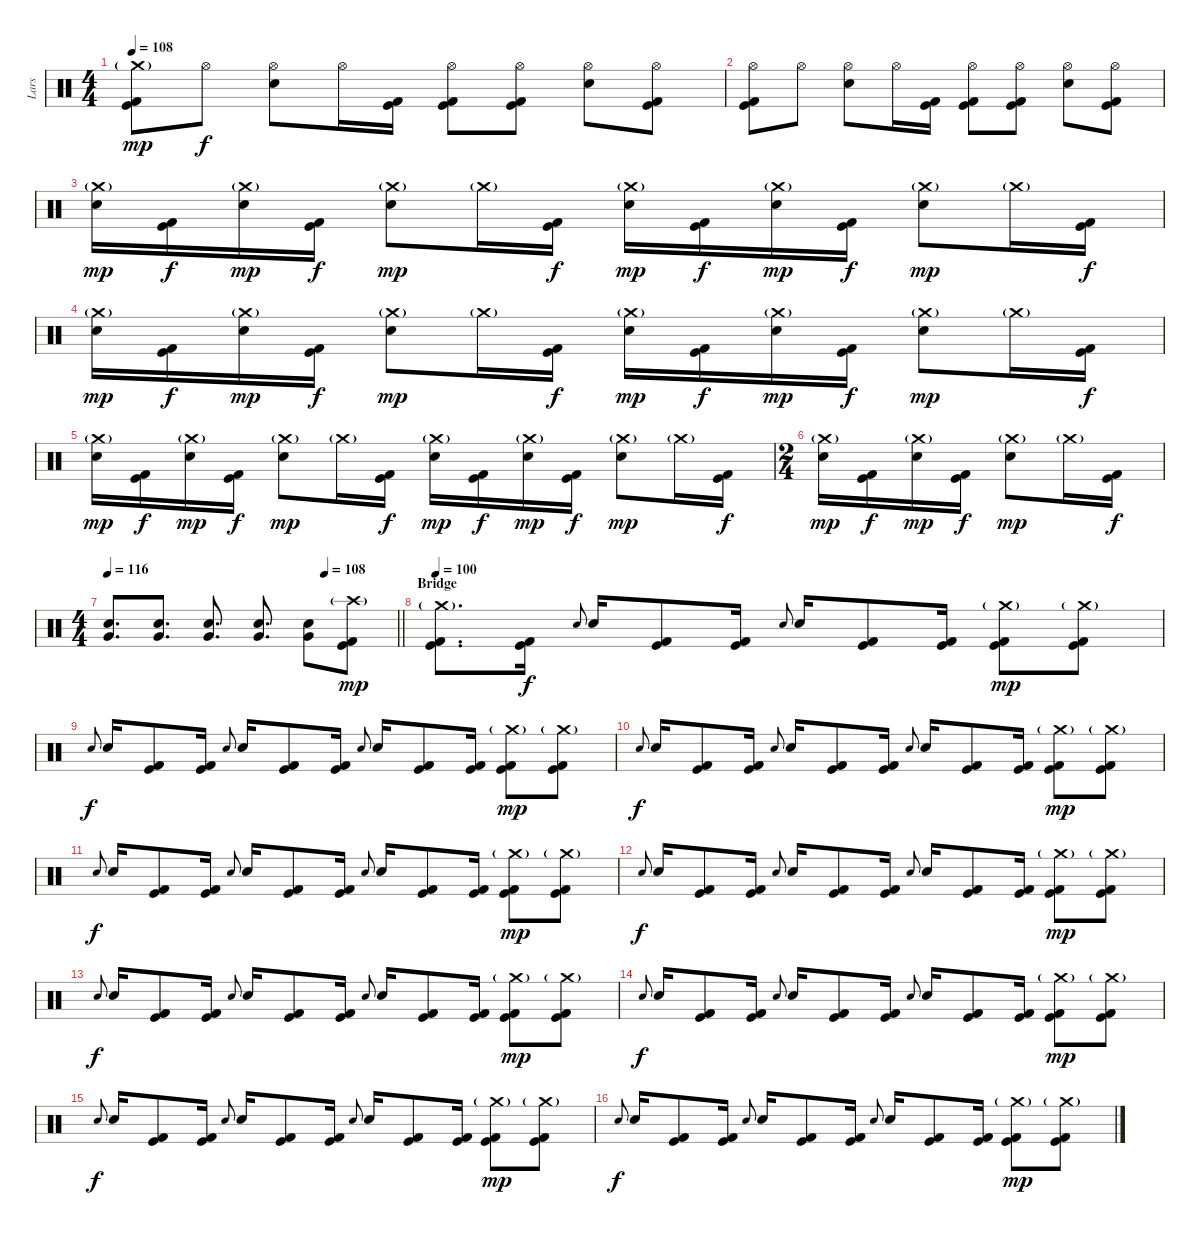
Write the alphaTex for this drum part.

\track ("Lars" "Lars") {instrument percussion}
\staff {score}
\articulation defaults
\ts (4 4)
\tempo 108
\clef neutral
\ks c
("Crash medium (hit)"{g} "Kick (hit)" "Kick (hit) 2").8{dy mp} "Hi-Hat (open)".8{dy f} ("Hi-Hat (open)" "Electric Snare (hit)").8 "Hi-Hat (open)".16 ("Kick (hit)" "Kick (hit) 2").16 ("Hi-Hat (open)" "Kick (hit)" "Kick (hit) 2").8 ("Hi-Hat (open)" "Kick (hit)" "Kick (hit) 2").8 ("Hi-Hat (open)" "Electric Snare (hit)").8 ("Hi-Hat (open)" "Kick (hit)" "Kick (hit) 2").8 |
("Hi-Hat (open)" "Kick (hit)" "Kick (hit) 2").8 "Hi-Hat (open)".8 ("Hi-Hat (open)" "Electric Snare (hit)").8 "Hi-Hat (open)".16 ("Kick (hit)" "Kick (hit) 2").16 ("Hi-Hat (open)" "Kick (hit)" "Kick (hit) 2").8 ("Hi-Hat (open)" "Kick (hit)" "Kick (hit) 2").8 ("Hi-Hat (open)" "Electric Snare (hit)").8 ("Hi-Hat (open)" "Kick (hit)" "Kick (hit) 2").8 |
("Crash medium (hit)"{g} "Electric Snare (hit)").16{dy mp} ("Kick (hit)" "Kick (hit) 2").16{dy f} ("Crash medium (hit)"{g} "Electric Snare (hit)").16{dy mp} ("Kick (hit)" "Kick (hit) 2").16{dy f} ("Crash medium (hit)"{g} "Electric Snare (hit)").8{dy mp} "Crash medium (hit)"{g}.16 ("Kick (hit)" "Kick (hit) 2").16{dy f} ("Crash medium (hit)"{g} "Electric Snare (hit)").16{dy mp} ("Kick (hit)" "Kick (hit) 2").16{dy f} ("Crash medium (hit)"{g} "Electric Snare (hit)").16{dy mp} ("Kick (hit)" "Kick (hit) 2").16{dy f} ("Crash medium (hit)"{g} "Electric Snare (hit)").8{dy mp} "Crash medium (hit)"{g}.16 ("Kick (hit)" "Kick (hit) 2").16{dy f} |
("Crash medium (hit)"{g} "Electric Snare (hit)").16{dy mp} ("Kick (hit)" "Kick (hit) 2").16{dy f} ("Crash medium (hit)"{g} "Electric Snare (hit)").16{dy mp} ("Kick (hit)" "Kick (hit) 2").16{dy f} ("Crash medium (hit)"{g} "Electric Snare (hit)").8{dy mp} "Crash medium (hit)"{g}.16 ("Kick (hit)" "Kick (hit) 2").16{dy f} ("Crash medium (hit)"{g} "Electric Snare (hit)").16{dy mp} ("Kick (hit)" "Kick (hit) 2").16{dy f} ("Crash medium (hit)"{g} "Electric Snare (hit)").16{dy mp} ("Kick (hit)" "Kick (hit) 2").16{dy f} ("Crash medium (hit)"{g} "Electric Snare (hit)").8{dy mp} "Crash medium (hit)"{g}.16 ("Kick (hit)" "Kick (hit) 2").16{dy f} |
("Crash medium (hit)"{g} "Electric Snare (hit)").16{dy mp} ("Kick (hit)" "Kick (hit) 2").16{dy f} ("Crash medium (hit)"{g} "Electric Snare (hit)").16{dy mp} ("Kick (hit)" "Kick (hit) 2").16{dy f} ("Crash medium (hit)"{g} "Electric Snare (hit)").8{dy mp} "Crash medium (hit)"{g}.16 ("Kick (hit)" "Kick (hit) 2").16{dy f} ("Crash medium (hit)"{g} "Electric Snare (hit)").16{dy mp} ("Kick (hit)" "Kick (hit) 2").16{dy f} ("Crash medium (hit)"{g} "Electric Snare (hit)").16{dy mp} ("Kick (hit)" "Kick (hit) 2").16{dy f} ("Crash medium (hit)"{g} "Electric Snare (hit)").8{dy mp} "Crash medium (hit)"{g}.16 ("Kick (hit)" "Kick (hit) 2").16{dy f} |
\ts (2 4)
("Crash medium (hit)"{g} "Electric Snare (hit)").16{dy mp} ("Kick (hit)" "Kick (hit) 2").16{dy f} ("Crash medium (hit)"{g} "Electric Snare (hit)").16{dy mp} ("Kick (hit)" "Kick (hit) 2").16{dy f} ("Crash medium (hit)"{g} "Electric Snare (hit)").8{dy mp} "Crash medium (hit)"{g}.16 ("Kick (hit)" "Kick (hit) 2").16{dy f} |
\ts (4 4)
\tempo 116
\tempo (108 0.75)
\barLineRight lightlight
("Electric Snare (hit)" "Very Low Tom (hit)").8{d} ("Electric Snare (hit)" "Very Low Tom (hit)").8{d} ("Electric Snare (hit)" "Very Low Tom (hit)").8{d} ("Electric Snare (hit)" "Very Low Tom (hit)").8{d} ("Electric Snare (hit)" "Very Low Tom (hit)").8 ("Crash high (hit)"{g} "Kick (hit)" "Kick (hit) 2").8{dy mp} |
\section ("" "Bridge")
\tempo 100
("Crash medium (hit)"{g} "Kick (hit)" "Kick (hit) 2").8{d} ("Kick (hit)" "Kick (hit) 2").16{dy f} "Electric Snare (hit)".8{gr onbeat} "Electric Snare (hit)".16 ("Kick (hit)" "Kick (hit) 2").8 ("Kick (hit)" "Kick (hit) 2").16 "Electric Snare (hit)".8{gr onbeat} "Electric Snare (hit)".16 ("Kick (hit)" "Kick (hit) 2").8 ("Kick (hit)" "Kick (hit) 2").16 ("Crash medium (hit)"{g} "Kick (hit)" "Kick (hit) 2").8{dy mp} ("Crash medium (hit)"{g} "Kick (hit)" "Kick (hit) 2").8 |
"Electric Snare (hit)".8{gr onbeat dy f} "Electric Snare (hit)".16 ("Kick (hit)" "Kick (hit) 2").8 ("Kick (hit)" "Kick (hit) 2").16 "Electric Snare (hit)".8{gr onbeat} "Electric Snare (hit)".16 ("Kick (hit)" "Kick (hit) 2").8 ("Kick (hit)" "Kick (hit) 2").16 "Electric Snare (hit)".8{gr onbeat} "Electric Snare (hit)".16 ("Kick (hit)" "Kick (hit) 2").8 ("Kick (hit)" "Kick (hit) 2").16 ("Crash medium (hit)"{g} "Kick (hit)" "Kick (hit) 2").8{dy mp} ("Crash medium (hit)"{g} "Kick (hit)" "Kick (hit) 2").8 |
"Electric Snare (hit)".8{gr onbeat dy f} "Electric Snare (hit)".16 ("Kick (hit)" "Kick (hit) 2").8 ("Kick (hit)" "Kick (hit) 2").16 "Electric Snare (hit)".8{gr onbeat} "Electric Snare (hit)".16 ("Kick (hit)" "Kick (hit) 2").8 ("Kick (hit)" "Kick (hit) 2").16 "Electric Snare (hit)".8{gr onbeat} "Electric Snare (hit)".16 ("Kick (hit)" "Kick (hit) 2").8 ("Kick (hit)" "Kick (hit) 2").16 ("Crash medium (hit)"{g} "Kick (hit)" "Kick (hit) 2").8{dy mp} ("Crash medium (hit)"{g} "Kick (hit)" "Kick (hit) 2").8 |
"Electric Snare (hit)".8{gr onbeat dy f} "Electric Snare (hit)".16 ("Kick (hit)" "Kick (hit) 2").8 ("Kick (hit)" "Kick (hit) 2").16 "Electric Snare (hit)".8{gr onbeat} "Electric Snare (hit)".16 ("Kick (hit)" "Kick (hit) 2").8 ("Kick (hit)" "Kick (hit) 2").16 "Electric Snare (hit)".8{gr onbeat} "Electric Snare (hit)".16 ("Kick (hit)" "Kick (hit) 2").8 ("Kick (hit)" "Kick (hit) 2").16 ("Crash medium (hit)"{g} "Kick (hit)" "Kick (hit) 2").8{dy mp} ("Crash medium (hit)"{g} "Kick (hit)" "Kick (hit) 2").8 |
"Electric Snare (hit)".8{gr onbeat dy f} "Electric Snare (hit)".16 ("Kick (hit)" "Kick (hit) 2").8 ("Kick (hit)" "Kick (hit) 2").16 "Electric Snare (hit)".8{gr onbeat} "Electric Snare (hit)".16 ("Kick (hit)" "Kick (hit) 2").8 ("Kick (hit)" "Kick (hit) 2").16 "Electric Snare (hit)".8{gr onbeat} "Electric Snare (hit)".16 ("Kick (hit)" "Kick (hit) 2").8 ("Kick (hit)" "Kick (hit) 2").16 ("Crash medium (hit)"{g} "Kick (hit)" "Kick (hit) 2").8{dy mp} ("Crash medium (hit)"{g} "Kick (hit)" "Kick (hit) 2").8 |
"Electric Snare (hit)".8{gr onbeat dy f} "Electric Snare (hit)".16 ("Kick (hit)" "Kick (hit) 2").8 ("Kick (hit)" "Kick (hit) 2").16 "Electric Snare (hit)".8{gr onbeat} "Electric Snare (hit)".16 ("Kick (hit)" "Kick (hit) 2").8 ("Kick (hit)" "Kick (hit) 2").16 "Electric Snare (hit)".8{gr onbeat} "Electric Snare (hit)".16 ("Kick (hit)" "Kick (hit) 2").8 ("Kick (hit)" "Kick (hit) 2").16 ("Crash medium (hit)"{g} "Kick (hit)" "Kick (hit) 2").8{dy mp} ("Crash medium (hit)"{g} "Kick (hit)" "Kick (hit) 2").8 |
"Electric Snare (hit)".8{gr onbeat dy f} "Electric Snare (hit)".16 ("Kick (hit)" "Kick (hit) 2").8 ("Kick (hit)" "Kick (hit) 2").16 "Electric Snare (hit)".8{gr onbeat} "Electric Snare (hit)".16 ("Kick (hit)" "Kick (hit) 2").8 ("Kick (hit)" "Kick (hit) 2").16 "Electric Snare (hit)".8{gr onbeat} "Electric Snare (hit)".16 ("Kick (hit)" "Kick (hit) 2").8 ("Kick (hit)" "Kick (hit) 2").16 ("Crash medium (hit)"{g} "Kick (hit)" "Kick (hit) 2").8{dy mp} ("Crash medium (hit)"{g} "Kick (hit)" "Kick (hit) 2").8 |
"Electric Snare (hit)".8{gr onbeat dy f} "Electric Snare (hit)".16 ("Kick (hit)" "Kick (hit) 2").8 ("Kick (hit)" "Kick (hit) 2").16 "Electric Snare (hit)".8{gr onbeat} "Electric Snare (hit)".16 ("Kick (hit)" "Kick (hit) 2").8 ("Kick (hit)" "Kick (hit) 2").16 "Electric Snare (hit)".8{gr onbeat} "Electric Snare (hit)".16 ("Kick (hit)" "Kick (hit) 2").8 ("Kick (hit)" "Kick (hit) 2").16 ("Crash medium (hit)"{g} "Kick (hit)" "Kick (hit) 2").8{dy mp} ("Crash medium (hit)"{g} "Kick (hit)" "Kick (hit) 2").8 |
"Electric Snare (hit)".8{gr onbeat dy f} "Electric Snare (hit)".16 ("Kick (hit)" "Kick (hit) 2").8 ("Kick (hit)" "Kick (hit) 2").16 "Electric Snare (hit)".8{gr onbeat} "Electric Snare (hit)".16 ("Kick (hit)" "Kick (hit) 2").8 ("Kick (hit)" "Kick (hit) 2").16 "Electric Snare (hit)".8{gr onbeat} "Electric Snare (hit)".16 ("Kick (hit)" "Kick (hit) 2").8 ("Kick (hit)" "Kick (hit) 2").16 ("Crash medium (hit)"{g} "Kick (hit)" "Kick (hit) 2").8{dy mp} ("Crash medium (hit)"{g} "Kick (hit)" "Kick (hit) 2").8
